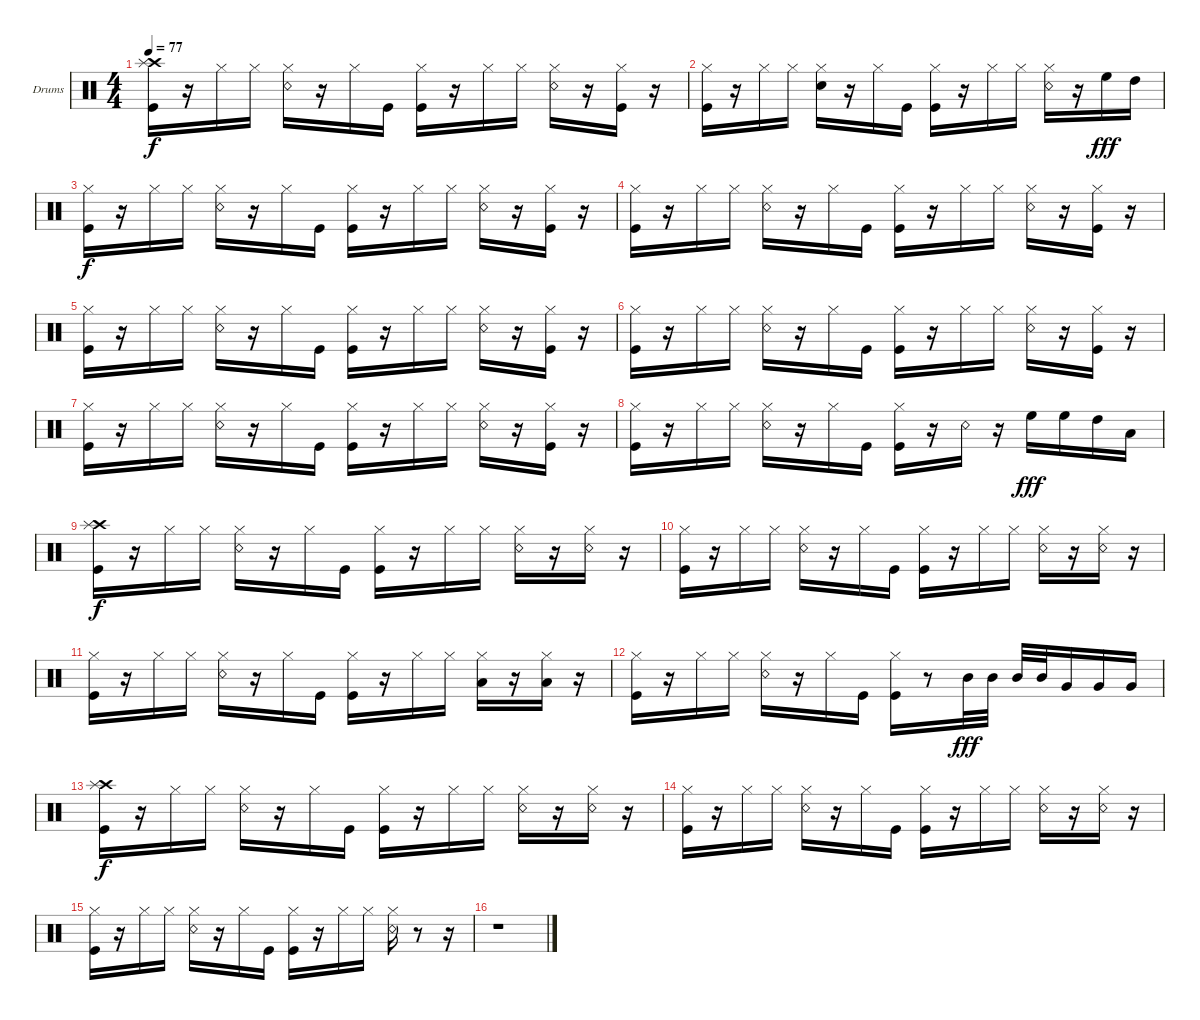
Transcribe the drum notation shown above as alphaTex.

\defaultSystemsLayout 4
\bracketExtendMode groupsimilarinstruments
\firstSystemTrackNameOrientation horizontal
\otherSystemsTrackNameOrientation horizontal
\track ("Drumkit" "Drums") {instrument percussion}
\staff {score}
\articulation defaults
\ts (4 4)
\tempo 77
\clef neutral
\scale
0.333333
\ks c
("Kick (hit)" "Crash high (hit)" "Splash (hit)").16{dy f} r.16 "Hi-Hat (closed)".16 "Hi-Hat (closed)".16 ("Snare (rim shot)" "Hi-Hat (closed)").16 r.16 "Hi-Hat (closed)".16 "Kick (hit)".16 ("Kick (hit)" "Hi-Hat (closed)").16 r.16 "Hi-Hat (closed)".16 "Hi-Hat (closed)".16 ("Snare (rim shot)" "Hi-Hat (closed)").16 r.16 ("Kick (hit)" "Hi-Hat (closed)").16 r.16 |
\scale
0.333333 ("Kick (hit)" "Hi-Hat (closed)").16 r.16 "Hi-Hat (closed)".16 "Hi-Hat (closed)".16 ("Snare (hit) 2" "Hi-Hat (closed)").16 r.16 "Hi-Hat (closed)".16 "Kick (hit)".16 ("Kick (hit)" "Hi-Hat (closed)").16 r.16 "Hi-Hat (closed)".16 "Hi-Hat (closed)".16 ("Snare (rim shot)" "Hi-Hat (closed)").16 r.16 "High Floor Tom (hit)".16{dy fff} "High Tom (hit)".16 |
\scale
0.333333 ("Kick (hit)" "Hi-Hat (closed)").16{dy f} r.16 "Hi-Hat (closed)".16 "Hi-Hat (closed)".16 ("Snare (rim shot)" "Hi-Hat (closed)").16 r.16 "Hi-Hat (closed)".16 "Kick (hit)".16 ("Kick (hit)" "Hi-Hat (closed)").16 r.16 "Hi-Hat (closed)".16 "Hi-Hat (closed)".16 ("Snare (rim shot)" "Hi-Hat (closed)").16 r.16 ("Kick (hit)" "Hi-Hat (closed)").16 r.16 |
\scale
0.333333 ("Kick (hit)" "Hi-Hat (closed)").16 r.16 "Hi-Hat (closed)".16 "Hi-Hat (closed)".16 ("Snare (rim shot)" "Hi-Hat (closed)").16 r.16 "Hi-Hat (closed)".16 "Kick (hit)".16 ("Kick (hit)" "Hi-Hat (closed)").16 r.16 "Hi-Hat (closed)".16 "Hi-Hat (closed)".16 ("Snare (rim shot)" "Hi-Hat (closed)").16 r.16 ("Kick (hit)" "Hi-Hat (closed)").16 r.16 |
\scale
0.333333 ("Kick (hit)" "Hi-Hat (closed)").16 r.16 "Hi-Hat (closed)".16 "Hi-Hat (closed)".16 ("Snare (rim shot)" "Hi-Hat (closed)").16 r.16 "Hi-Hat (closed)".16 "Kick (hit)".16 ("Kick (hit)" "Hi-Hat (closed)").16 r.16 "Hi-Hat (closed)".16 "Hi-Hat (closed)".16 ("Snare (rim shot)" "Hi-Hat (closed)").16 r.16 ("Kick (hit)" "Hi-Hat (closed)").16 r.16 |
\scale
0.333333 ("Kick (hit)" "Hi-Hat (closed)").16 r.16 "Hi-Hat (closed)".16 "Hi-Hat (closed)".16 ("Snare (rim shot)" "Hi-Hat (closed)").16 r.16 "Hi-Hat (closed)".16 "Kick (hit)".16 ("Kick (hit)" "Hi-Hat (closed)").16 r.16 "Hi-Hat (closed)".16 "Hi-Hat (closed)".16 ("Snare (rim shot)" "Hi-Hat (closed)").16 r.16 ("Kick (hit)" "Hi-Hat (closed)").16 r.16 |
\scale
0.333333 ("Kick (hit)" "Hi-Hat (closed)").16 r.16 "Hi-Hat (closed)".16 "Hi-Hat (closed)".16 ("Snare (rim shot)" "Hi-Hat (closed)").16 r.16 "Hi-Hat (closed)".16 "Kick (hit)".16 ("Kick (hit)" "Hi-Hat (closed)").16 r.16 "Hi-Hat (closed)".16 "Hi-Hat (closed)".16 ("Snare (rim shot)" "Hi-Hat (closed)").16 r.16 ("Kick (hit)" "Hi-Hat (closed)").16 r.16 |
\scale
0.333333 ("Kick (hit)" "Hi-Hat (closed)").16 r.16 "Hi-Hat (closed)".16 "Hi-Hat (closed)".16 ("Snare (rim shot)" "Hi-Hat (closed)").16 r.16 "Hi-Hat (closed)".16 "Kick (hit)".16 ("Kick (hit)" "Hi-Hat (closed)").16 r.16 "Snare (rim shot)".16 r.16 "High Floor Tom (hit)".16{dy fff} "High Floor Tom (hit)".16 "High Tom (hit)".16 "Low Tom (hit)".16 |
\scale
0.333333 ("Kick (hit)" "Crash high (hit)" "Splash (hit)").16{dy f} r.16 "Hi-Hat (closed)".16 "Hi-Hat (closed)".16 ("Snare (rim shot)" "Hi-Hat (closed)").16 r.16 "Hi-Hat (closed)".16 "Kick (hit)".16 ("Kick (hit)" "Hi-Hat (closed)").16 r.16 "Hi-Hat (closed)".16 "Hi-Hat (closed)".16 ("Snare (rim shot)" "Hi-Hat (closed)").16 r.16 ("Snare (rim shot)" "Hi-Hat (closed)").16 r.16 |
\scale
0.333333 ("Kick (hit)" "Hi-Hat (closed)").16 r.16 "Hi-Hat (closed)".16 "Hi-Hat (closed)".16 ("Snare (rim shot)" "Hi-Hat (closed)").16 r.16 "Hi-Hat (closed)".16 "Kick (hit)".16 ("Kick (hit)" "Hi-Hat (closed)").16 r.16 "Hi-Hat (closed)".16 "Hi-Hat (closed)".16 ("Snare (rim shot)" "Hi-Hat (closed)").16 r.16 ("Snare (rim shot)" "Hi-Hat (closed)").16 r.16 |
\scale
0.333333 ("Kick (hit)" "Hi-Hat (closed)").16 r.16 "Hi-Hat (closed)".16 "Hi-Hat (closed)".16 ("Snare (rim shot)" "Hi-Hat (closed)").16 r.16 "Hi-Hat (closed)".16 "Kick (hit)".16 ("Kick (hit)" "Hi-Hat (closed)").16 r.16 "Hi-Hat (closed)".16 "Hi-Hat (closed)".16 ("Low Tom (hit)" "Hi-Hat (closed)").16 r.16 ("Low Tom (hit)" "Hi-Hat (closed)").16 r.16 |
\scale
0.333333 ("Kick (hit)" "Hi-Hat (closed)").16 r.16 "Hi-Hat (closed)".16 "Hi-Hat (closed)".16 ("Snare (rim shot)" "Hi-Hat (closed)").16 r.16 "Hi-Hat (closed)".16 "Kick (hit)".16 ("Kick (hit)" "Hi-Hat (closed)").16 r.8 "Mid Tom (hit)".32{dy fff} "Mid Tom (hit)".32 "Mid Tom (hit)".32 "Mid Tom (hit)".32 "Very Low Tom (hit)".16 "Very Low Tom (hit)".16 "Very Low Tom (hit)".16 |
\scale
0.333333 ("Kick (hit)" "Crash high (hit)" "Splash (hit)").16{dy f} r.16 "Hi-Hat (closed)".16 "Hi-Hat (closed)".16 ("Snare (rim shot)" "Hi-Hat (closed)").16 r.16 "Hi-Hat (closed)".16 "Kick (hit)".16 ("Kick (hit)" "Hi-Hat (closed)").16 r.16 "Hi-Hat (closed)".16 "Hi-Hat (closed)".16 ("Snare (rim shot)" "Hi-Hat (closed)").16 r.16 ("Snare (rim shot)" "Hi-Hat (closed)").16 r.16 |
\scale
0.333333 ("Kick (hit)" "Hi-Hat (closed)").16 r.16 "Hi-Hat (closed)".16 "Hi-Hat (closed)".16 ("Snare (rim shot)" "Hi-Hat (closed)").16 r.16 "Hi-Hat (closed)".16 "Kick (hit)".16 ("Kick (hit)" "Hi-Hat (closed)").16 r.16 "Hi-Hat (closed)".16 "Hi-Hat (closed)".16 ("Snare (rim shot)" "Hi-Hat (closed)").16 r.16 ("Snare (rim shot)" "Hi-Hat (closed)").16 r.16 |
\scale
0.333333 ("Kick (hit)" "Hi-Hat (closed)").16 r.16 "Hi-Hat (closed)".16 "Hi-Hat (closed)".16 ("Snare (rim shot)" "Hi-Hat (closed)").16 r.16 "Hi-Hat (closed)".16 "Kick (hit)".16 ("Kick (hit)" "Hi-Hat (closed)").16 r.16 "Hi-Hat (closed)".16 "Hi-Hat (closed)".16 ("Snare (rim shot)" "Hi-Hat (closed)").16 r.8 r.16 |
\scale
0.333333 r.1
